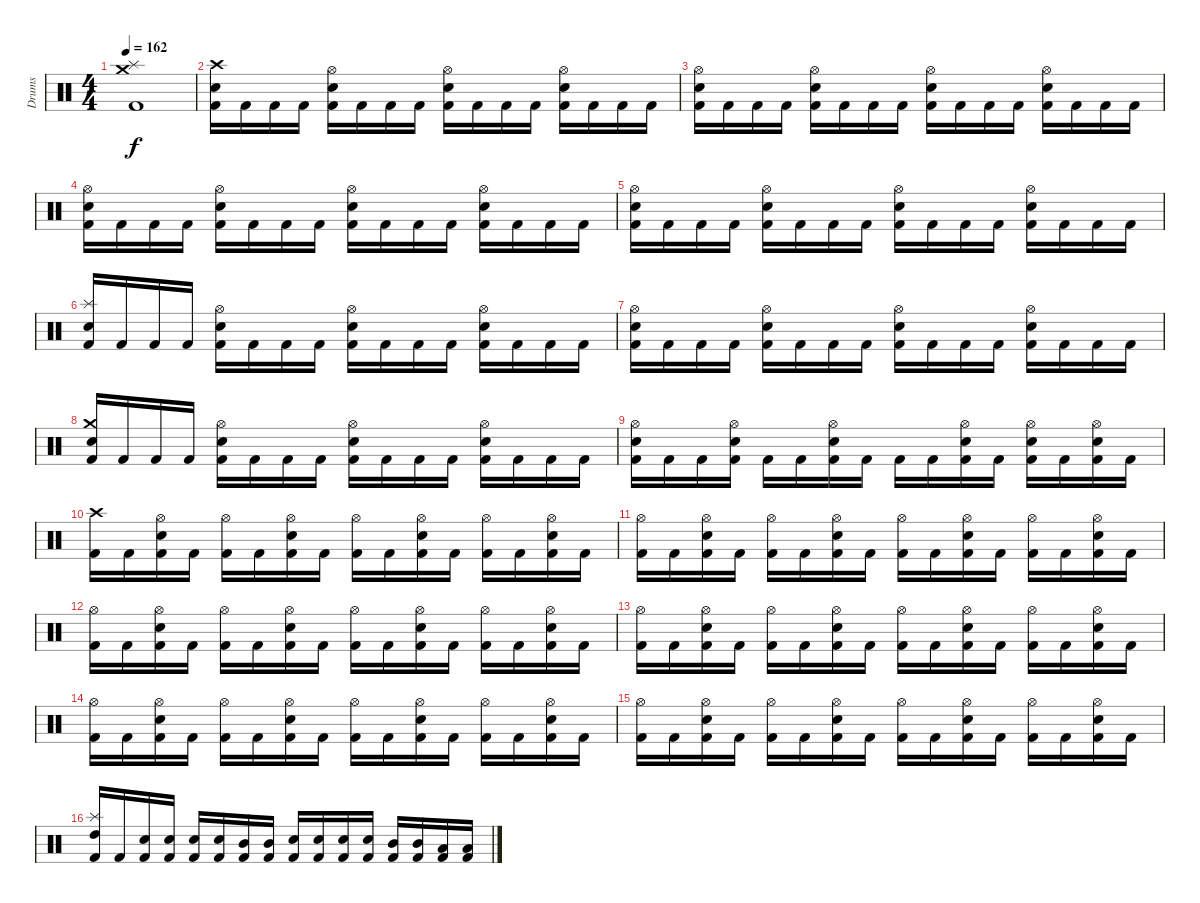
\track ("Drums" "Drums") {instrument percussion}
\staff {score}
\articulation defaults
\ts (4 4)
\tempo 162
\clef neutral
\ks c
("Kick (hit) 2" "Splash (hit)" "Crash medium (hit)").1{dy f} |
\section ("" "")
("Kick (hit) 2" "Electric Snare (hit)" "Crash high (hit)").16 "Kick (hit) 2".16 "Kick (hit) 2".16 "Kick (hit) 2".16 ("Kick (hit) 2" "Electric Snare (hit)" "Hi-Hat (open)").16 "Kick (hit) 2".16 "Kick (hit) 2".16 "Kick (hit) 2".16 ("Kick (hit) 2" "Electric Snare (hit)" "Hi-Hat (open)").16 "Kick (hit) 2".16 "Kick (hit) 2".16 "Kick (hit) 2".16 ("Kick (hit) 2" "Electric Snare (hit)" "Hi-Hat (open)").16 "Kick (hit) 2".16 "Kick (hit) 2".16 "Kick (hit) 2".16 |
("Kick (hit) 2" "Electric Snare (hit)" "Hi-Hat (open)").16 "Kick (hit) 2".16 "Kick (hit) 2".16 "Kick (hit) 2".16 ("Kick (hit) 2" "Electric Snare (hit)" "Hi-Hat (open)").16 "Kick (hit) 2".16 "Kick (hit) 2".16 "Kick (hit) 2".16 ("Kick (hit) 2" "Electric Snare (hit)" "Hi-Hat (open)").16 "Kick (hit) 2".16 "Kick (hit) 2".16 "Kick (hit) 2".16 ("Kick (hit) 2" "Electric Snare (hit)" "Hi-Hat (open)").16 "Kick (hit) 2".16 "Kick (hit) 2".16 "Kick (hit) 2".16 |
("Kick (hit) 2" "Electric Snare (hit)" "Hi-Hat (open)").16 "Kick (hit) 2".16 "Kick (hit) 2".16 "Kick (hit) 2".16 ("Kick (hit) 2" "Electric Snare (hit)" "Hi-Hat (open)").16 "Kick (hit) 2".16 "Kick (hit) 2".16 "Kick (hit) 2".16 ("Kick (hit) 2" "Electric Snare (hit)" "Hi-Hat (open)").16 "Kick (hit) 2".16 "Kick (hit) 2".16 "Kick (hit) 2".16 ("Kick (hit) 2" "Electric Snare (hit)" "Hi-Hat (open)").16 "Kick (hit) 2".16 "Kick (hit) 2".16 "Kick (hit) 2".16 |
("Kick (hit) 2" "Electric Snare (hit)" "Hi-Hat (open)").16 "Kick (hit) 2".16 "Kick (hit) 2".16 "Kick (hit) 2".16 ("Kick (hit) 2" "Electric Snare (hit)" "Hi-Hat (open)").16 "Kick (hit) 2".16 "Kick (hit) 2".16 "Kick (hit) 2".16 ("Kick (hit) 2" "Electric Snare (hit)" "Hi-Hat (open)").16 "Kick (hit) 2".16 "Kick (hit) 2".16 "Kick (hit) 2".16 ("Kick (hit) 2" "Electric Snare (hit)" "Hi-Hat (open)").16 "Kick (hit) 2".16 "Kick (hit) 2".16 "Kick (hit) 2".16 |
("Kick (hit) 2" "Electric Snare (hit)" "Splash (hit)").16 "Kick (hit) 2".16 "Kick (hit) 2".16 "Kick (hit) 2".16 ("Kick (hit) 2" "Electric Snare (hit)" "Hi-Hat (open)").16 "Kick (hit) 2".16 "Kick (hit) 2".16 "Kick (hit) 2".16 ("Kick (hit) 2" "Electric Snare (hit)" "Hi-Hat (open)").16 "Kick (hit) 2".16 "Kick (hit) 2".16 "Kick (hit) 2".16 ("Kick (hit) 2" "Electric Snare (hit)" "Hi-Hat (open)").16 "Kick (hit) 2".16 "Kick (hit) 2".16 "Kick (hit) 2".16 |
("Kick (hit) 2" "Electric Snare (hit)" "Hi-Hat (open)").16 "Kick (hit) 2".16 "Kick (hit) 2".16 "Kick (hit) 2".16 ("Kick (hit) 2" "Electric Snare (hit)" "Hi-Hat (open)").16 "Kick (hit) 2".16 "Kick (hit) 2".16 "Kick (hit) 2".16 ("Kick (hit) 2" "Electric Snare (hit)" "Hi-Hat (open)").16 "Kick (hit) 2".16 "Kick (hit) 2".16 "Kick (hit) 2".16 ("Kick (hit) 2" "Electric Snare (hit)" "Hi-Hat (open)").16 "Kick (hit) 2".16 "Kick (hit) 2".16 "Kick (hit) 2".16 |
("Kick (hit) 2" "Electric Snare (hit)" "Crash medium (hit)").16 "Kick (hit) 2".16 "Kick (hit) 2".16 "Kick (hit) 2".16 ("Kick (hit) 2" "Electric Snare (hit)" "Hi-Hat (open)").16 "Kick (hit) 2".16 "Kick (hit) 2".16 "Kick (hit) 2".16 ("Kick (hit) 2" "Electric Snare (hit)" "Hi-Hat (open)").16 "Kick (hit) 2".16 "Kick (hit) 2".16 "Kick (hit) 2".16 ("Kick (hit) 2" "Electric Snare (hit)" "Hi-Hat (open)").16 "Kick (hit) 2".16 "Kick (hit) 2".16 "Kick (hit) 2".16 |
("Kick (hit) 2" "Electric Snare (hit)" "Hi-Hat (open)").16 "Kick (hit) 2".16 "Kick (hit) 2".16 ("Kick (hit) 2" "Electric Snare (hit)" "Hi-Hat (open)").16 "Kick (hit) 2".16 "Kick (hit) 2".16 ("Kick (hit) 2" "Electric Snare (hit)" "Hi-Hat (open)").16 "Kick (hit) 2".16 "Kick (hit) 2".16 "Kick (hit) 2".16 ("Kick (hit) 2" "Electric Snare (hit)" "Hi-Hat (open)").16 "Kick (hit) 2".16 ("Kick (hit) 2" "Electric Snare (hit)" "Hi-Hat (open)").16 "Kick (hit) 2".16 ("Kick (hit) 2" "Electric Snare (hit)" "Hi-Hat (open)").16 "Kick (hit) 2".16 |
("Kick (hit) 2" "Crash high (hit)").16 "Kick (hit) 2".16 ("Kick (hit) 2" "Electric Snare (hit)" "Hi-Hat (open)").16 "Kick (hit) 2".16 ("Kick (hit) 2" "Hi-Hat (open)").16 "Kick (hit) 2".16 ("Kick (hit) 2" "Electric Snare (hit)" "Hi-Hat (open)").16 "Kick (hit) 2".16 ("Kick (hit) 2" "Hi-Hat (open)").16 "Kick (hit) 2".16 ("Kick (hit) 2" "Electric Snare (hit)" "Hi-Hat (open)").16 "Kick (hit) 2".16 ("Kick (hit) 2" "Hi-Hat (open)").16 "Kick (hit) 2".16 ("Kick (hit) 2" "Electric Snare (hit)" "Hi-Hat (open)").16 "Kick (hit) 2".16 |
("Kick (hit) 2" "Hi-Hat (open)").16 "Kick (hit) 2".16 ("Kick (hit) 2" "Electric Snare (hit)" "Hi-Hat (open)").16 "Kick (hit) 2".16 ("Kick (hit) 2" "Hi-Hat (open)").16 "Kick (hit) 2".16 ("Kick (hit) 2" "Electric Snare (hit)" "Hi-Hat (open)").16 "Kick (hit) 2".16 ("Kick (hit) 2" "Hi-Hat (open)").16 "Kick (hit) 2".16 ("Kick (hit) 2" "Electric Snare (hit)" "Hi-Hat (open)").16 "Kick (hit) 2".16 ("Kick (hit) 2" "Hi-Hat (open)").16 "Kick (hit) 2".16 ("Kick (hit) 2" "Electric Snare (hit)" "Hi-Hat (open)").16 "Kick (hit) 2".16 |
("Kick (hit) 2" "Hi-Hat (open)").16 "Kick (hit) 2".16 ("Kick (hit) 2" "Electric Snare (hit)" "Hi-Hat (open)").16 "Kick (hit) 2".16 ("Kick (hit) 2" "Hi-Hat (open)").16 "Kick (hit) 2".16 ("Kick (hit) 2" "Electric Snare (hit)" "Hi-Hat (open)").16 "Kick (hit) 2".16 ("Kick (hit) 2" "Hi-Hat (open)").16 "Kick (hit) 2".16 ("Kick (hit) 2" "Electric Snare (hit)" "Hi-Hat (open)").16 "Kick (hit) 2".16 ("Kick (hit) 2" "Hi-Hat (open)").16 "Kick (hit) 2".16 ("Kick (hit) 2" "Electric Snare (hit)" "Hi-Hat (open)").16 "Kick (hit) 2".16 |
("Kick (hit) 2" "Hi-Hat (open)").16 "Kick (hit) 2".16 ("Kick (hit) 2" "Electric Snare (hit)" "Hi-Hat (open)").16 "Kick (hit) 2".16 ("Kick (hit) 2" "Hi-Hat (open)").16 "Kick (hit) 2".16 ("Kick (hit) 2" "Electric Snare (hit)" "Hi-Hat (open)").16 "Kick (hit) 2".16 ("Kick (hit) 2" "Hi-Hat (open)").16 "Kick (hit) 2".16 ("Kick (hit) 2" "Electric Snare (hit)" "Hi-Hat (open)").16 "Kick (hit) 2".16 ("Kick (hit) 2" "Hi-Hat (open)").16 "Kick (hit) 2".16 ("Kick (hit) 2" "Electric Snare (hit)" "Hi-Hat (open)").16 "Kick (hit) 2".16 |
("Kick (hit) 2" "Hi-Hat (open)").16 "Kick (hit) 2".16 ("Kick (hit) 2" "Electric Snare (hit)" "Hi-Hat (open)").16 "Kick (hit) 2".16 ("Kick (hit) 2" "Hi-Hat (open)").16 "Kick (hit) 2".16 ("Kick (hit) 2" "Electric Snare (hit)" "Hi-Hat (open)").16 "Kick (hit) 2".16 ("Kick (hit) 2" "Hi-Hat (open)").16 "Kick (hit) 2".16 ("Kick (hit) 2" "Electric Snare (hit)" "Hi-Hat (open)").16 "Kick (hit) 2".16 ("Kick (hit) 2" "Hi-Hat (open)").16 "Kick (hit) 2".16 ("Kick (hit) 2" "Electric Snare (hit)" "Hi-Hat (open)").16 "Kick (hit) 2".16 |
("Kick (hit) 2" "Hi-Hat (open)").16 "Kick (hit) 2".16 ("Kick (hit) 2" "Electric Snare (hit)" "Hi-Hat (open)").16 "Kick (hit) 2".16 ("Kick (hit) 2" "Hi-Hat (open)").16 "Kick (hit) 2".16 ("Kick (hit) 2" "Electric Snare (hit)" "Hi-Hat (open)").16 "Kick (hit) 2".16 ("Kick (hit) 2" "Hi-Hat (open)").16 "Kick (hit) 2".16 ("Kick (hit) 2" "Electric Snare (hit)" "Hi-Hat (open)").16 "Kick (hit) 2".16 ("Kick (hit) 2" "Hi-Hat (open)").16 "Kick (hit) 2".16 ("Kick (hit) 2" "Electric Snare (hit)" "Hi-Hat (open)").16 "Kick (hit) 2".16 |
("Kick (hit) 2" "High Tom (hit)" "Splash (hit)").16 "Kick (hit) 2".16 ("Kick (hit) 2" "Electric Snare (hit)").16 ("Kick (hit) 2" "Electric Snare (hit)").16 ("Kick (hit) 2" "Electric Snare (hit)").16 ("Kick (hit) 2" "Electric Snare (hit)").16 ("Kick (hit) 2" "Mid Tom (hit)").16 ("Kick (hit) 2" "Mid Tom (hit)").16 ("Kick (hit) 2" "Electric Snare (hit)").16 ("Kick (hit) 2" "Electric Snare (hit)").16 ("Kick (hit) 2" "Electric Snare (hit)").16 ("Kick (hit) 2" "Electric Snare (hit)").16 ("Kick (hit) 2" "Mid Tom (hit)").16 ("Kick (hit) 2" "Mid Tom (hit)").16 ("Kick (hit) 2" "Low Tom (hit)").16 ("Kick (hit) 2" "Low Tom (hit)").16
